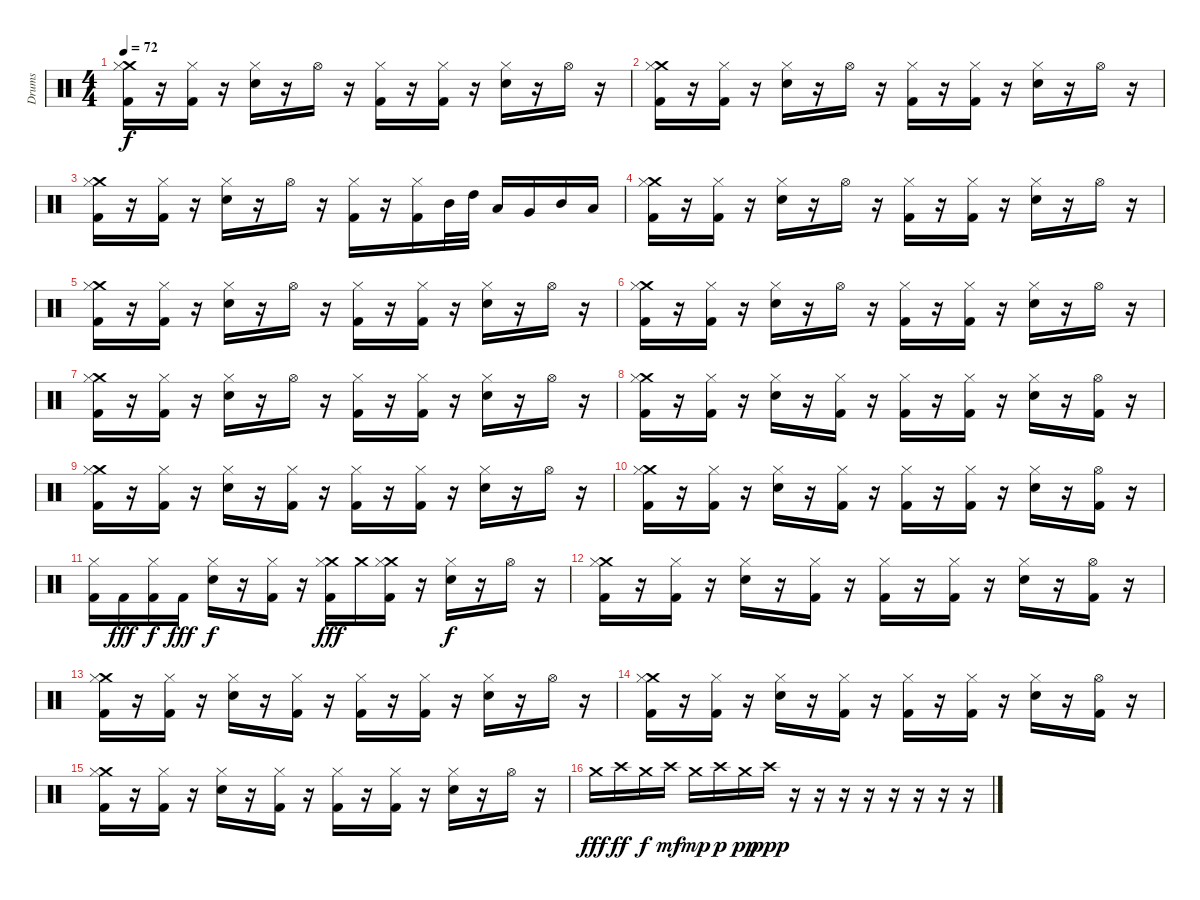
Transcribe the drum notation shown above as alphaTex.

\track ("Drums" "Drums") {instrument percussion}
\staff {score}
\articulation defaults
\ts (4 4)
\tempo 72
\clef neutral
\ks c
("Crash medium (hit)" "Hi-Hat (closed)" "Kick (hit) 2").16{dy f} r.16 ("Hi-Hat (closed)" "Kick (hit) 2").16 r.16 ("Hi-Hat (closed)" "Snare (hit) 2").16 r.16 "Hi-Hat (open)".16 r.16 ("Hi-Hat (closed)" "Kick (hit) 2").16 r.16 ("Hi-Hat (closed)" "Kick (hit) 2").16 r.16 ("Hi-Hat (closed)" "Snare (hit) 2").16 r.16 "Hi-Hat (open)".16 r.16 |
("Crash medium (hit)" "Hi-Hat (closed)" "Kick (hit) 2").16 r.16 ("Hi-Hat (closed)" "Kick (hit) 2").16 r.16 ("Hi-Hat (closed)" "Snare (hit) 2").16 r.16 "Hi-Hat (open)".16 r.16 ("Hi-Hat (closed)" "Kick (hit) 2").16 r.16 ("Hi-Hat (closed)" "Kick (hit) 2").16 r.16 ("Hi-Hat (closed)" "Snare (hit) 2").16 r.16 "Hi-Hat (open)".16 r.16 |
("Crash medium (hit)" "Hi-Hat (closed)" "Kick (hit) 2").16 r.16 ("Hi-Hat (closed)" "Kick (hit) 2").16 r.16 ("Hi-Hat (closed)" "Snare (hit) 2").16 r.16 "Hi-Hat (open)".16 r.16 ("Hi-Hat (closed)" "Kick (hit) 2").16 r.16 ("Hi-Hat (closed)" "Kick (hit) 2").16 "Mid Tom (hit)".32 "High Tom (hit)".32 "Low Tom (hit)".16 "Very Low Tom (hit)".16 "Mid Tom (hit)".16 "Low Tom (hit)".16 |
("Crash medium (hit)" "Hi-Hat (closed)" "Kick (hit) 2").16 r.16 ("Hi-Hat (closed)" "Kick (hit) 2").16 r.16 ("Hi-Hat (closed)" "Snare (hit) 2").16 r.16 "Hi-Hat (open)".16 r.16 ("Hi-Hat (closed)" "Kick (hit) 2").16 r.16 ("Hi-Hat (closed)" "Kick (hit) 2").16 r.16 ("Hi-Hat (closed)" "Snare (hit) 2").16 r.16 "Hi-Hat (open)".16 r.16 |
("Crash medium (hit)" "Hi-Hat (closed)" "Kick (hit) 2").16 r.16 ("Hi-Hat (closed)" "Kick (hit) 2").16 r.16 ("Hi-Hat (closed)" "Snare (hit) 2").16 r.16 "Hi-Hat (open)".16 r.16 ("Hi-Hat (closed)" "Kick (hit) 2").16 r.16 ("Hi-Hat (closed)" "Kick (hit) 2").16 r.16 ("Hi-Hat (closed)" "Snare (hit) 2").16 r.16 "Hi-Hat (open)".16 r.16 |
("Crash medium (hit)" "Hi-Hat (closed)" "Kick (hit) 2").16 r.16 ("Hi-Hat (closed)" "Kick (hit) 2").16 r.16 ("Hi-Hat (closed)" "Snare (hit) 2").16 r.16 "Hi-Hat (open)".16 r.16 ("Hi-Hat (closed)" "Kick (hit) 2").16 r.16 ("Hi-Hat (closed)" "Kick (hit) 2").16 r.16 ("Hi-Hat (closed)" "Snare (hit) 2").16 r.16 "Hi-Hat (open)".16 r.16 |
("Crash medium (hit)" "Hi-Hat (closed)" "Kick (hit) 2").16 r.16 ("Hi-Hat (closed)" "Kick (hit) 2").16 r.16 ("Hi-Hat (closed)" "Snare (hit) 2").16 r.16 "Hi-Hat (open)".16 r.16 ("Hi-Hat (closed)" "Kick (hit) 2").16 r.16 ("Hi-Hat (closed)" "Kick (hit) 2").16 r.16 ("Hi-Hat (closed)" "Snare (hit) 2").16 r.16 "Hi-Hat (open)".16 r.16 |
("Crash medium (hit)" "Hi-Hat (closed)" "Kick (hit) 2").16 r.16 ("Hi-Hat (closed)" "Kick (hit) 2").16 r.16 ("Hi-Hat (closed)" "Snare (hit) 2").16 r.16 ("Hi-Hat (closed)" "Kick (hit) 2").16 r.16 ("Hi-Hat (closed)" "Kick (hit) 2").16 r.16 ("Hi-Hat (closed)" "Kick (hit) 2").16 r.16 ("Hi-Hat (closed)" "Snare (hit) 2").16 r.16 ("Hi-Hat (open)" "Kick (hit) 2").16 r.16 |
("Crash medium (hit)" "Hi-Hat (closed)" "Kick (hit) 2").16 r.16 ("Hi-Hat (closed)" "Kick (hit) 2").16 r.16 ("Hi-Hat (closed)" "Snare (hit) 2").16 r.16 ("Hi-Hat (closed)" "Kick (hit) 2").16 r.16 ("Hi-Hat (closed)" "Kick (hit) 2").16 r.16 ("Hi-Hat (closed)" "Kick (hit) 2").16 r.16 ("Hi-Hat (closed)" "Snare (hit) 2").16 r.16 "Hi-Hat (open)".16 r.16 |
("Crash medium (hit)" "Hi-Hat (closed)" "Kick (hit) 2").16 r.16 ("Hi-Hat (closed)" "Kick (hit) 2").16 r.16 ("Hi-Hat (closed)" "Snare (hit) 2").16 r.16 ("Hi-Hat (closed)" "Kick (hit) 2").16 r.16 ("Hi-Hat (closed)" "Kick (hit) 2").16 r.16 ("Hi-Hat (closed)" "Kick (hit) 2").16 r.16 ("Hi-Hat (closed)" "Snare (hit) 2").16 r.16 ("Hi-Hat (open)" "Kick (hit) 2").16 r.16 |
("Hi-Hat (closed)" "Kick (hit) 2").16 "Kick (hit) 2".16{dy fff} ("Hi-Hat (closed)" "Kick (hit) 2").16{dy f} "Kick (hit) 2".16{dy fff} ("Hi-Hat (closed)" "Snare (hit) 2").16{dy f} r.16 ("Hi-Hat (closed)" "Kick (hit) 2").16 r.16 ("Crash medium (hit)" "Hi-Hat (closed)" "Kick (hit) 2").16{dy fff} "Crash medium (hit)".16 ("Crash medium (hit)" "Hi-Hat (closed)" "Kick (hit) 2").16 r.16 ("Hi-Hat (closed)" "Snare (hit) 2").16{dy f} r.16 "Hi-Hat (open)".16 r.16 |
("Crash medium (hit)" "Hi-Hat (closed)" "Kick (hit) 2").16 r.16 ("Hi-Hat (closed)" "Kick (hit) 2").16 r.16 ("Hi-Hat (closed)" "Snare (hit) 2").16 r.16 ("Hi-Hat (closed)" "Kick (hit) 2").16 r.16 ("Hi-Hat (closed)" "Kick (hit) 2").16 r.16 ("Hi-Hat (closed)" "Kick (hit) 2").16 r.16 ("Hi-Hat (closed)" "Snare (hit) 2").16 r.16 ("Hi-Hat (open)" "Kick (hit) 2").16 r.16 |
("Crash medium (hit)" "Hi-Hat (closed)" "Kick (hit) 2").16 r.16 ("Hi-Hat (closed)" "Kick (hit) 2").16 r.16 ("Hi-Hat (closed)" "Snare (hit) 2").16 r.16 ("Hi-Hat (closed)" "Kick (hit) 2").16 r.16 ("Hi-Hat (closed)" "Kick (hit) 2").16 r.16 ("Hi-Hat (closed)" "Kick (hit) 2").16 r.16 ("Hi-Hat (closed)" "Snare (hit) 2").16 r.16 "Hi-Hat (open)".16 r.16 |
("Crash medium (hit)" "Hi-Hat (closed)" "Kick (hit) 2").16 r.16 ("Hi-Hat (closed)" "Kick (hit) 2").16 r.16 ("Hi-Hat (closed)" "Snare (hit) 2").16 r.16 ("Hi-Hat (closed)" "Kick (hit) 2").16 r.16 ("Hi-Hat (closed)" "Kick (hit) 2").16 r.16 ("Hi-Hat (closed)" "Kick (hit) 2").16 r.16 ("Hi-Hat (closed)" "Snare (hit) 2").16 r.16 ("Hi-Hat (open)" "Kick (hit) 2").16 r.16 |
("Crash medium (hit)" "Hi-Hat (closed)" "Kick (hit) 2").16 r.16 ("Hi-Hat (closed)" "Kick (hit) 2").16 r.16 ("Hi-Hat (closed)" "Snare (hit) 2").16 r.16 ("Hi-Hat (closed)" "Kick (hit) 2").16 r.16 ("Hi-Hat (closed)" "Kick (hit) 2").16 r.16 ("Hi-Hat (closed)" "Kick (hit) 2").16 r.16 ("Hi-Hat (closed)" "Snare (hit) 2").16 r.16 "Hi-Hat (open)".16 r.16 |
"Crash medium (hit)".16{dy fff} "Crash high (hit)".16{dy ff} "Crash medium (hit)".16{dy f} "Crash high (hit)".16{dy mf} "Crash medium (hit)".16{dy mp} "Crash high (hit)".16{dy p} "Crash medium (hit)".16{dy pp} "Crash high (hit)".16{dy ppp} r.16 r.16 r.16 r.16 r.16 r.16 r.16 r.16
